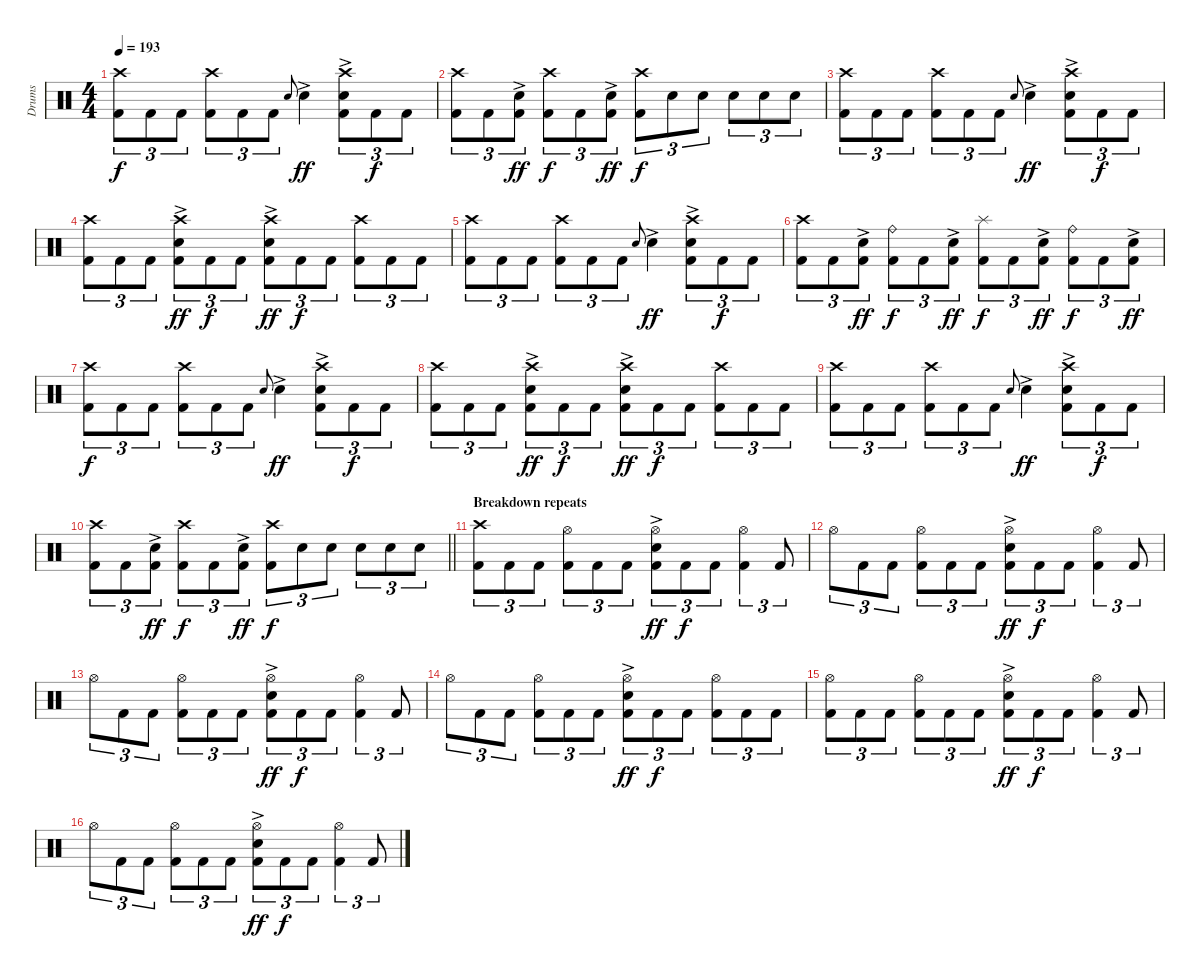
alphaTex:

\track ("Drums" "Drums") {instrument percussion}
\staff {score}
\articulation defaults
\ts (4 4)
\tempo 193
\clef neutral
\ks c
("Crash high (hit)" "Kick (hit) 2").8{tu (3 2) dy f} "Kick (hit) 2".8{tu (3 2)} "Kick (hit) 2".8{tu (3 2)} ("Crash high (hit)" "Kick (hit) 2").8{tu (3 2)} "Kick (hit) 2".8{tu (3 2)} "Kick (hit) 2".8{tu (3 2)} "Electric Snare (hit)".8{gr onbeat} "Electric Snare (hit)"{ac}.4{dy ff} ("Crash high (hit)" "Electric Snare (hit)"{ac} "Kick (hit) 2").8{tu (3 2)} "Kick (hit) 2".8{tu (3 2) dy f} "Kick (hit) 2".8{tu (3 2)} |
("Crash high (hit)" "Kick (hit) 2").8{tu (3 2)} "Kick (hit) 2".8{tu (3 2)} ("Electric Snare (hit)"{ac} "Kick (hit) 2").8{tu (3 2) dy ff} ("Crash high (hit)" "Kick (hit) 2").8{tu (3 2) dy f} "Kick (hit) 2".8{tu (3 2)} ("Electric Snare (hit)"{ac} "Kick (hit) 2").8{tu (3 2) dy ff} ("Crash high (hit)" "Kick (hit) 2").8{tu (3 2) dy f} "Electric Snare (hit)".8{tu (3 2)} "Electric Snare (hit)".8{tu (3 2)} "Electric Snare (hit)".8{tu (3 2)} "Electric Snare (hit)".8{tu (3 2)} "Electric Snare (hit)".8{tu (3 2)} |
("Crash high (hit)" "Kick (hit) 2").8{tu (3 2)} "Kick (hit) 2".8{tu (3 2)} "Kick (hit) 2".8{tu (3 2)} ("Crash high (hit)" "Kick (hit) 2").8{tu (3 2)} "Kick (hit) 2".8{tu (3 2)} "Kick (hit) 2".8{tu (3 2)} "Electric Snare (hit)".8{gr onbeat} "Electric Snare (hit)"{ac}.4{dy ff} ("Crash high (hit)" "Electric Snare (hit)"{ac} "Kick (hit) 2").8{tu (3 2)} "Kick (hit) 2".8{tu (3 2) dy f} "Kick (hit) 2".8{tu (3 2)} |
("Crash high (hit)" "Kick (hit) 2").8{tu (3 2)} "Kick (hit) 2".8{tu (3 2)} "Kick (hit) 2".8{tu (3 2)} ("Crash high (hit)" "Electric Snare (hit)"{ac} "Kick (hit) 2").8{tu (3 2) dy ff} "Kick (hit) 2".8{tu (3 2) dy f} "Kick (hit) 2".8{tu (3 2)} ("Crash high (hit)" "Electric Snare (hit)"{ac} "Kick (hit) 2").8{tu (3 2) dy ff} "Kick (hit) 2".8{tu (3 2) dy f} "Kick (hit) 2".8{tu (3 2)} ("Crash high (hit)" "Kick (hit) 2").8{tu (3 2)} "Kick (hit) 2".8{tu (3 2)} "Kick (hit) 2".8{tu (3 2)} |
("Crash high (hit)" "Kick (hit) 2").8{tu (3 2)} "Kick (hit) 2".8{tu (3 2)} "Kick (hit) 2".8{tu (3 2)} ("Crash high (hit)" "Kick (hit) 2").8{tu (3 2)} "Kick (hit) 2".8{tu (3 2)} "Kick (hit) 2".8{tu (3 2)} "Electric Snare (hit)".8{gr onbeat} "Electric Snare (hit)"{ac}.4{dy ff} ("Crash high (hit)" "Electric Snare (hit)"{ac} "Kick (hit) 2").8{tu (3 2)} "Kick (hit) 2".8{tu (3 2) dy f} "Kick (hit) 2".8{tu (3 2)} |
("Crash high (hit)" "Kick (hit) 2").8{tu (3 2)} "Kick (hit) 2".8{tu (3 2)} ("Electric Snare (hit)"{ac} "Kick (hit) 2").8{tu (3 2) dy ff} ("Ride (bell)" "Kick (hit) 2").8{tu (3 2) dy f} "Kick (hit) 2".8{tu (3 2)} ("Electric Snare (hit)"{ac} "Kick (hit) 2").8{tu (3 2) dy ff} ("Splash (hit)" "Kick (hit) 2").8{tu (3 2) dy f} "Kick (hit) 2".8{tu (3 2)} ("Electric Snare (hit)"{ac} "Kick (hit) 2").8{tu (3 2) dy ff} ("Ride (bell)" "Kick (hit) 2").8{tu (3 2) dy f} "Kick (hit) 2".8{tu (3 2)} ("Electric Snare (hit)"{ac} "Kick (hit) 2").8{tu (3 2) dy ff} |
("Crash high (hit)" "Kick (hit) 2").8{tu (3 2) dy f} "Kick (hit) 2".8{tu (3 2)} "Kick (hit) 2".8{tu (3 2)} ("Crash high (hit)" "Kick (hit) 2").8{tu (3 2)} "Kick (hit) 2".8{tu (3 2)} "Kick (hit) 2".8{tu (3 2)} "Electric Snare (hit)".8{gr onbeat} "Electric Snare (hit)"{ac}.4{dy ff} ("Crash high (hit)" "Electric Snare (hit)"{ac} "Kick (hit) 2").8{tu (3 2)} "Kick (hit) 2".8{tu (3 2) dy f} "Kick (hit) 2".8{tu (3 2)} |
("Crash high (hit)" "Kick (hit) 2").8{tu (3 2)} "Kick (hit) 2".8{tu (3 2)} "Kick (hit) 2".8{tu (3 2)} ("Crash high (hit)" "Electric Snare (hit)"{ac} "Kick (hit) 2").8{tu (3 2) dy ff} "Kick (hit) 2".8{tu (3 2) dy f} "Kick (hit) 2".8{tu (3 2)} ("Crash high (hit)" "Electric Snare (hit)"{ac} "Kick (hit) 2").8{tu (3 2) dy ff} "Kick (hit) 2".8{tu (3 2) dy f} "Kick (hit) 2".8{tu (3 2)} ("Crash high (hit)" "Kick (hit) 2").8{tu (3 2)} "Kick (hit) 2".8{tu (3 2)} "Kick (hit) 2".8{tu (3 2)} |
("Crash high (hit)" "Kick (hit) 2").8{tu (3 2)} "Kick (hit) 2".8{tu (3 2)} "Kick (hit) 2".8{tu (3 2)} ("Crash high (hit)" "Kick (hit) 2").8{tu (3 2)} "Kick (hit) 2".8{tu (3 2)} "Kick (hit) 2".8{tu (3 2)} "Electric Snare (hit)".8{gr onbeat} "Electric Snare (hit)"{ac}.4{dy ff} ("Crash high (hit)" "Electric Snare (hit)"{ac} "Kick (hit) 2").8{tu (3 2)} "Kick (hit) 2".8{tu (3 2) dy f} "Kick (hit) 2".8{tu (3 2)} |
\barLineRight lightlight
("Crash high (hit)" "Kick (hit) 2").8{tu (3 2)} "Kick (hit) 2".8{tu (3 2)} ("Electric Snare (hit)"{ac} "Kick (hit) 2").8{tu (3 2) dy ff} ("Crash high (hit)" "Kick (hit) 2").8{tu (3 2) dy f} "Kick (hit) 2".8{tu (3 2)} ("Electric Snare (hit)"{ac} "Kick (hit) 2").8{tu (3 2) dy ff} ("Crash high (hit)" "Kick (hit) 2").8{tu (3 2) dy f} "Electric Snare (hit)".8{tu (3 2)} "Electric Snare (hit)".8{tu (3 2)} "Electric Snare (hit)".8{tu (3 2)} "Electric Snare (hit)".8{tu (3 2)} "Electric Snare (hit)".8{tu (3 2)} |
\section ("" "Breakdown repeats")
("Crash high (hit)" "Kick (hit) 2").8{tu (3 2)} "Kick (hit) 2".8{tu (3 2)} "Kick (hit) 2".8{tu (3 2)} ("Hi-Hat (open)" "Kick (hit) 2").8{tu (3 2)} "Kick (hit) 2".8{tu (3 2)} "Kick (hit) 2".8{tu (3 2)} ("Hi-Hat (open)" "Electric Snare (hit)"{ac} "Kick (hit) 2").8{tu (3 2) dy ff} "Kick (hit) 2".8{tu (3 2) dy f} "Kick (hit) 2".8{tu (3 2)} ("Hi-Hat (open)" "Kick (hit) 2").4{tu (3 2)} "Kick (hit) 2".8{tu (3 2)} |
"Hi-Hat (open)".8{tu (3 2)} "Kick (hit) 2".8{tu (3 2)} "Kick (hit) 2".8{tu (3 2)} ("Hi-Hat (open)" "Kick (hit) 2").8{tu (3 2)} "Kick (hit) 2".8{tu (3 2)} "Kick (hit) 2".8{tu (3 2)} ("Hi-Hat (open)" "Electric Snare (hit)"{ac} "Kick (hit) 2").8{tu (3 2) dy ff} "Kick (hit) 2".8{tu (3 2) dy f} "Kick (hit) 2".8{tu (3 2)} ("Hi-Hat (open)" "Kick (hit) 2").4{tu (3 2)} "Kick (hit) 2".8{tu (3 2)} |
"Hi-Hat (open)".8{tu (3 2)} "Kick (hit) 2".8{tu (3 2)} "Kick (hit) 2".8{tu (3 2)} ("Hi-Hat (open)" "Kick (hit) 2").8{tu (3 2)} "Kick (hit) 2".8{tu (3 2)} "Kick (hit) 2".8{tu (3 2)} ("Hi-Hat (open)" "Electric Snare (hit)"{ac} "Kick (hit) 2").8{tu (3 2) dy ff} "Kick (hit) 2".8{tu (3 2) dy f} "Kick (hit) 2".8{tu (3 2)} ("Hi-Hat (open)" "Kick (hit) 2").4{tu (3 2)} "Kick (hit) 2".8{tu (3 2)} |
"Hi-Hat (open)".8{tu (3 2)} "Kick (hit) 2".8{tu (3 2)} "Kick (hit) 2".8{tu (3 2)} ("Hi-Hat (open)" "Kick (hit) 2").8{tu (3 2)} "Kick (hit) 2".8{tu (3 2)} "Kick (hit) 2".8{tu (3 2)} ("Hi-Hat (open)" "Electric Snare (hit)"{ac} "Kick (hit) 2").8{tu (3 2) dy ff} "Kick (hit) 2".8{tu (3 2) dy f} "Kick (hit) 2".8{tu (3 2)} ("Hi-Hat (open)" "Kick (hit) 2").8{tu (3 2)} "Kick (hit) 2".8{tu (3 2)} "Kick (hit) 2".8{tu (3 2)} |
("Hi-Hat (open)" "Kick (hit) 2").8{tu (3 2)} "Kick (hit) 2".8{tu (3 2)} "Kick (hit) 2".8{tu (3 2)} ("Hi-Hat (open)" "Kick (hit) 2").8{tu (3 2)} "Kick (hit) 2".8{tu (3 2)} "Kick (hit) 2".8{tu (3 2)} ("Hi-Hat (open)" "Electric Snare (hit)"{ac} "Kick (hit) 2").8{tu (3 2) dy ff} "Kick (hit) 2".8{tu (3 2) dy f} "Kick (hit) 2".8{tu (3 2)} ("Hi-Hat (open)" "Kick (hit) 2").4{tu (3 2)} "Kick (hit) 2".8{tu (3 2)} |
"Hi-Hat (open)".8{tu (3 2)} "Kick (hit) 2".8{tu (3 2)} "Kick (hit) 2".8{tu (3 2)} ("Hi-Hat (open)" "Kick (hit) 2").8{tu (3 2)} "Kick (hit) 2".8{tu (3 2)} "Kick (hit) 2".8{tu (3 2)} ("Hi-Hat (open)" "Electric Snare (hit)"{ac} "Kick (hit) 2").8{tu (3 2) dy ff} "Kick (hit) 2".8{tu (3 2) dy f} "Kick (hit) 2".8{tu (3 2)} ("Hi-Hat (open)" "Kick (hit) 2").4{tu (3 2)} "Kick (hit) 2".8{tu (3 2)}
